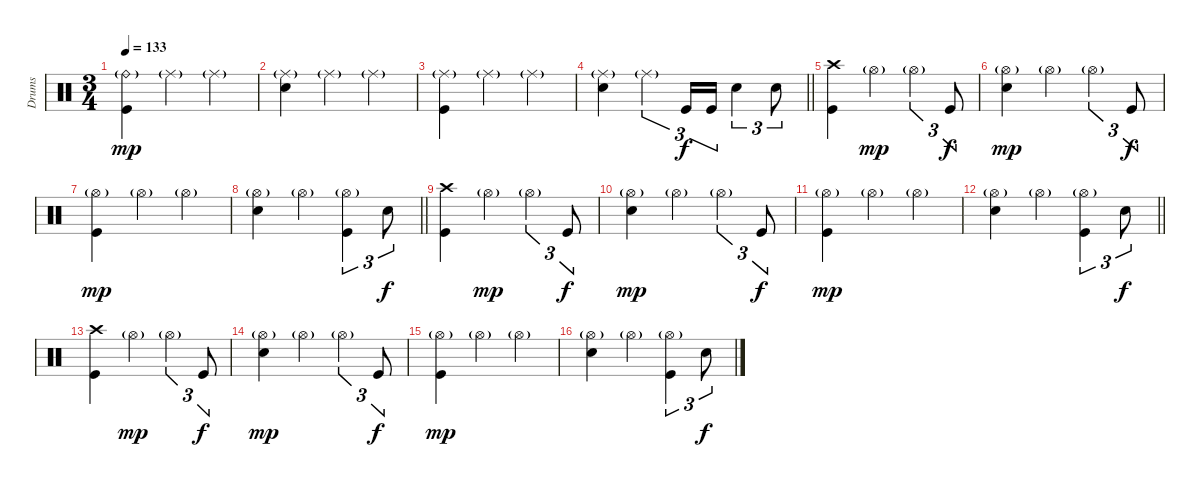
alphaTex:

\track ("Drums" "Drums") {instrument percussion}
\staff
\articulation defaults
\ts (3 4)
\tempo 133
\clef neutral
\ks c
("Ride (bell)"{g} "Kick (hit)").4{dy mp} "Ride (middle)"{g}.4 "Ride (middle)"{g}.4 |
("Ride (middle)"{g} "Electric Snare (hit)").4 "Ride (middle)"{g}.4 "Ride (middle)"{g}.4 |
("Ride (middle)"{g} "Kick (hit)").4 "Ride (middle)"{g}.4 "Ride (middle)"{g}.4 |
\barLineRight lightlight
("Ride (middle)"{g} "Electric Snare (hit)").4 "Ride (middle)"{g}.4{tu (3 2)} "Kick (hit)".16{tu (3 2) dy f} "Kick (hit)".16{tu (3 2)} "Electric Snare (hit)".4{tu (3 2)} "Electric Snare (hit)".8{tu (3 2)} |
\section ("" "")
("Crash high (hit)" "Kick (hit)").4 "Hi-Hat (open)"{g}.4{dy mp} "Hi-Hat (open)"{g}.4{tu (3 2)} "Kick (hit)".8{tu (3 2) dy f} |
("Hi-Hat (open)"{g} "Electric Snare (hit)").4{dy mp} "Hi-Hat (open)"{g}.4 "Hi-Hat (open)"{g}.4{tu (3 2)} "Kick (hit)".8{tu (3 2) dy f} |
("Hi-Hat (open)"{g} "Kick (hit)").4{dy mp} "Hi-Hat (open)"{g}.4 "Hi-Hat (open)"{g}.4 |
\barLineRight lightlight
("Hi-Hat (open)"{g} "Electric Snare (hit)").4 "Hi-Hat (open)"{g}.4 ("Hi-Hat (open)"{g} "Kick (hit)").4{tu (3 2)} "Electric Snare (hit)".8{tu (3 2) dy f} |
("Crash high (hit)" "Kick (hit)").4 "Hi-Hat (open)"{g}.4{dy mp} "Hi-Hat (open)"{g}.4{tu (3 2)} "Kick (hit)".8{tu (3 2) dy f} |
("Hi-Hat (open)"{g} "Electric Snare (hit)").4{dy mp} "Hi-Hat (open)"{g}.4 "Hi-Hat (open)"{g}.4{tu (3 2)} "Kick (hit)".8{tu (3 2) dy f} |
("Hi-Hat (open)"{g} "Kick (hit)").4{dy mp} "Hi-Hat (open)"{g}.4 "Hi-Hat (open)"{g}.4 |
\barLineRight lightlight
("Hi-Hat (open)"{g} "Electric Snare (hit)").4 "Hi-Hat (open)"{g}.4 ("Hi-Hat (open)"{g} "Kick (hit)").4{tu (3 2)} "Electric Snare (hit)".8{tu (3 2) dy f} |
("Crash high (hit)" "Kick (hit)").4 "Hi-Hat (open)"{g}.4{dy mp} "Hi-Hat (open)"{g}.4{tu (3 2)} "Kick (hit)".8{tu (3 2) dy f} |
("Hi-Hat (open)"{g} "Electric Snare (hit)").4{dy mp} "Hi-Hat (open)"{g}.4 "Hi-Hat (open)"{g}.4{tu (3 2)} "Kick (hit)".8{tu (3 2) dy f} |
("Hi-Hat (open)"{g} "Kick (hit)").4{dy mp} "Hi-Hat (open)"{g}.4 "Hi-Hat (open)"{g}.4 |
("Hi-Hat (open)"{g} "Electric Snare (hit)").4 "Hi-Hat (open)"{g}.4 ("Hi-Hat (open)"{g} "Kick (hit)").4{tu (3 2)} "Electric Snare (hit)".8{tu (3 2) dy f}
